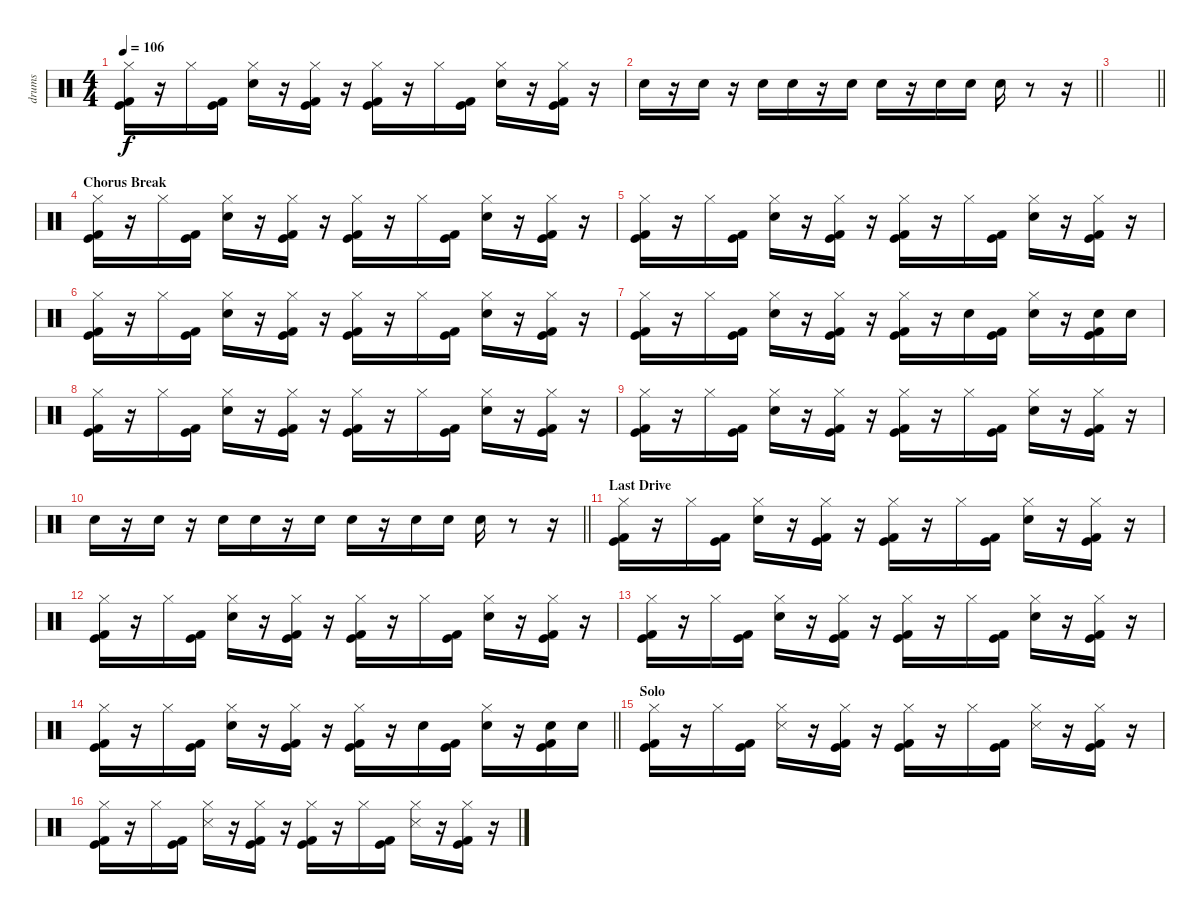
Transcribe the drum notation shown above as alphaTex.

\track ("drums" "drums") {instrument percussion}
\staff {score}
\articulation defaults
\ts (4 4)
\tempo 106
\clef neutral
\ks c
("Hi-Hat (closed)" "Kick (hit) 2" "Kick (hit)").16{dy f} r.16 "Hi-Hat (closed)".16 ("Kick (hit) 2" "Kick (hit)").16 ("Hi-Hat (closed)" "Electric Snare (hit)").16 r.16 ("Hi-Hat (closed)" "Kick (hit) 2" "Kick (hit)").16 r.16 ("Hi-Hat (closed)" "Kick (hit) 2" "Kick (hit)").16 r.16 "Hi-Hat (closed)".16 ("Kick (hit) 2" "Kick (hit)").16 ("Hi-Hat (closed)" "Electric Snare (hit)").16 r.16 ("Hi-Hat (closed)" "Kick (hit) 2" "Kick (hit)").16 r.16 |
\barLineRight lightlight "Electric Snare (hit)".16
r.16 "Electric Snare (hit)".16 r.16 "Electric Snare (hit)".16 "Electric Snare (hit)".16 r.16 "Electric Snare (hit)".16 "Electric Snare (hit)".16 r.16 "Electric Snare (hit)".16 "Electric Snare (hit)".16 "Electric Snare (hit)".16 r.8 r.16 |
\barLineRight lightlight
|
\section ("" "Chorus Break")
("Hi-Hat (closed)" "Kick (hit) 2" "Kick (hit)").16 r.16 "Hi-Hat (closed)".16 ("Kick (hit) 2" "Kick (hit)").16 ("Hi-Hat (closed)" "Electric Snare (hit)").16 r.16 ("Hi-Hat (closed)" "Kick (hit) 2" "Kick (hit)").16 r.16 ("Hi-Hat (closed)" "Kick (hit) 2" "Kick (hit)").16 r.16 "Hi-Hat (closed)".16 ("Kick (hit) 2" "Kick (hit)").16 ("Hi-Hat (closed)" "Electric Snare (hit)").16 r.16 ("Hi-Hat (closed)" "Kick (hit) 2" "Kick (hit)").16 r.16 |
("Hi-Hat (closed)" "Kick (hit) 2" "Kick (hit)").16 r.16 "Hi-Hat (closed)".16 ("Kick (hit) 2" "Kick (hit)").16 ("Hi-Hat (closed)" "Electric Snare (hit)").16 r.16 ("Hi-Hat (closed)" "Kick (hit) 2" "Kick (hit)").16 r.16 ("Hi-Hat (closed)" "Kick (hit) 2" "Kick (hit)").16 r.16 "Hi-Hat (closed)".16 ("Kick (hit) 2" "Kick (hit)").16 ("Hi-Hat (closed)" "Electric Snare (hit)").16 r.16 ("Hi-Hat (closed)" "Kick (hit) 2" "Kick (hit)").16 r.16 |
("Hi-Hat (closed)" "Kick (hit) 2" "Kick (hit)").16 r.16 "Hi-Hat (closed)".16 ("Kick (hit) 2" "Kick (hit)").16 ("Hi-Hat (closed)" "Electric Snare (hit)").16 r.16 ("Hi-Hat (closed)" "Kick (hit) 2" "Kick (hit)").16 r.16 ("Hi-Hat (closed)" "Kick (hit) 2" "Kick (hit)").16 r.16 "Hi-Hat (closed)".16 ("Kick (hit) 2" "Kick (hit)").16 ("Hi-Hat (closed)" "Electric Snare (hit)").16 r.16 ("Hi-Hat (closed)" "Kick (hit) 2" "Kick (hit)").16 r.16 |
("Hi-Hat (closed)" "Kick (hit) 2" "Kick (hit)").16 r.16 "Hi-Hat (closed)".16 ("Kick (hit) 2" "Kick (hit)").16 ("Hi-Hat (closed)" "Electric Snare (hit)").16 r.16 ("Hi-Hat (closed)" "Kick (hit) 2" "Kick (hit)").16 r.16 ("Hi-Hat (closed)" "Kick (hit) 2" "Kick (hit)").16 r.16 "Electric Snare (hit)".16 ("Kick (hit) 2" "Kick (hit)").16 ("Hi-Hat (closed)" "Electric Snare (hit)").16 r.16 ("Electric Snare (hit)" "Kick (hit) 2" "Kick (hit)").16 "Electric Snare (hit)".16 |
("Hi-Hat (closed)" "Kick (hit) 2" "Kick (hit)").16 r.16 "Hi-Hat (closed)".16 ("Kick (hit) 2" "Kick (hit)").16 ("Hi-Hat (closed)" "Electric Snare (hit)").16 r.16 ("Hi-Hat (closed)" "Kick (hit) 2" "Kick (hit)").16 r.16 ("Hi-Hat (closed)" "Kick (hit) 2" "Kick (hit)").16 r.16 "Hi-Hat (closed)".16 ("Kick (hit) 2" "Kick (hit)").16 ("Hi-Hat (closed)" "Electric Snare (hit)").16 r.16 ("Hi-Hat (closed)" "Kick (hit) 2" "Kick (hit)").16 r.16 |
("Hi-Hat (closed)" "Kick (hit) 2" "Kick (hit)").16 r.16 "Hi-Hat (closed)".16 ("Kick (hit) 2" "Kick (hit)").16 ("Hi-Hat (closed)" "Electric Snare (hit)").16 r.16 ("Hi-Hat (closed)" "Kick (hit) 2" "Kick (hit)").16 r.16 ("Hi-Hat (closed)" "Kick (hit) 2" "Kick (hit)").16 r.16 "Hi-Hat (closed)".16 ("Kick (hit) 2" "Kick (hit)").16 ("Hi-Hat (closed)" "Electric Snare (hit)").16 r.16 ("Hi-Hat (closed)" "Kick (hit) 2" "Kick (hit)").16 r.16 |
\barLineRight lightlight "Electric Snare (hit)".16
r.16 "Electric Snare (hit)".16 r.16 "Electric Snare (hit)".16 "Electric Snare (hit)".16 r.16 "Electric Snare (hit)".16 "Electric Snare (hit)".16 r.16 "Electric Snare (hit)".16 "Electric Snare (hit)".16 "Electric Snare (hit)".16 r.8 r.16 |
\section ("" "Last Drive")
("Hi-Hat (closed)" "Kick (hit) 2" "Kick (hit)").16 r.16 "Hi-Hat (closed)".16 ("Kick (hit) 2" "Kick (hit)").16 ("Hi-Hat (closed)" "Electric Snare (hit)").16 r.16 ("Hi-Hat (closed)" "Kick (hit) 2" "Kick (hit)").16 r.16 ("Hi-Hat (closed)" "Kick (hit) 2" "Kick (hit)").16 r.16 "Hi-Hat (closed)".16 ("Kick (hit) 2" "Kick (hit)").16 ("Hi-Hat (closed)" "Electric Snare (hit)").16 r.16 ("Hi-Hat (closed)" "Kick (hit) 2" "Kick (hit)").16 r.16 |
("Hi-Hat (closed)" "Kick (hit) 2" "Kick (hit)").16 r.16 "Hi-Hat (closed)".16 ("Kick (hit) 2" "Kick (hit)").16 ("Hi-Hat (closed)" "Electric Snare (hit)").16 r.16 ("Hi-Hat (closed)" "Kick (hit) 2" "Kick (hit)").16 r.16 ("Hi-Hat (closed)" "Kick (hit) 2" "Kick (hit)").16 r.16 "Hi-Hat (closed)".16 ("Kick (hit) 2" "Kick (hit)").16 ("Hi-Hat (closed)" "Electric Snare (hit)").16 r.16 ("Hi-Hat (closed)" "Kick (hit) 2" "Kick (hit)").16 r.16 |
("Hi-Hat (closed)" "Kick (hit) 2" "Kick (hit)").16 r.16 "Hi-Hat (closed)".16 ("Kick (hit) 2" "Kick (hit)").16 ("Hi-Hat (closed)" "Electric Snare (hit)").16 r.16 ("Hi-Hat (closed)" "Kick (hit) 2" "Kick (hit)").16 r.16 ("Hi-Hat (closed)" "Kick (hit) 2" "Kick (hit)").16 r.16 "Hi-Hat (closed)".16 ("Kick (hit) 2" "Kick (hit)").16 ("Hi-Hat (closed)" "Electric Snare (hit)").16 r.16 ("Hi-Hat (closed)" "Kick (hit) 2" "Kick (hit)").16 r.16 |
\barLineRight lightlight
("Hi-Hat (closed)" "Kick (hit) 2" "Kick (hit)").16 r.16 "Hi-Hat (closed)".16 ("Kick (hit) 2" "Kick (hit)").16 ("Hi-Hat (closed)" "Electric Snare (hit)").16 r.16 ("Hi-Hat (closed)" "Kick (hit) 2" "Kick (hit)").16 r.16 ("Hi-Hat (closed)" "Kick (hit) 2" "Kick (hit)").16 r.16 "Electric Snare (hit)".16 ("Kick (hit) 2" "Kick (hit)").16 ("Hi-Hat (closed)" "Electric Snare (hit)").16 r.16 ("Electric Snare (hit)" "Kick (hit) 2" "Kick (hit)").16 "Electric Snare (hit)".16 |
\section ("" "Solo")
("Hi-Hat (closed)" "Kick (hit) 2" "Kick (hit)").16 r.16 "Hi-Hat (closed)".16 ("Kick (hit) 2" "Kick (hit)").16 ("Hi-Hat (closed)" "Snare (side stick) 3").16 r.16 ("Hi-Hat (closed)" "Kick (hit) 2" "Kick (hit)").16 r.16 ("Hi-Hat (closed)" "Kick (hit) 2" "Kick (hit)").16 r.16 "Hi-Hat (closed)".16 ("Kick (hit) 2" "Kick (hit)").16 ("Hi-Hat (closed)" "Snare (side stick) 3").16 r.16 ("Hi-Hat (closed)" "Kick (hit) 2" "Kick (hit)").16 r.16 |
("Hi-Hat (closed)" "Kick (hit) 2" "Kick (hit)").16 r.16 "Hi-Hat (closed)".16 ("Kick (hit) 2" "Kick (hit)").16 ("Hi-Hat (closed)" "Snare (side stick) 3").16 r.16 ("Hi-Hat (closed)" "Kick (hit) 2" "Kick (hit)").16 r.16 ("Hi-Hat (closed)" "Kick (hit) 2" "Kick (hit)").16 r.16 "Hi-Hat (closed)".16 ("Kick (hit) 2" "Kick (hit)").16 ("Hi-Hat (closed)" "Snare (side stick) 3").16 r.16 ("Hi-Hat (closed)" "Kick (hit) 2" "Kick (hit)").16 r.16
